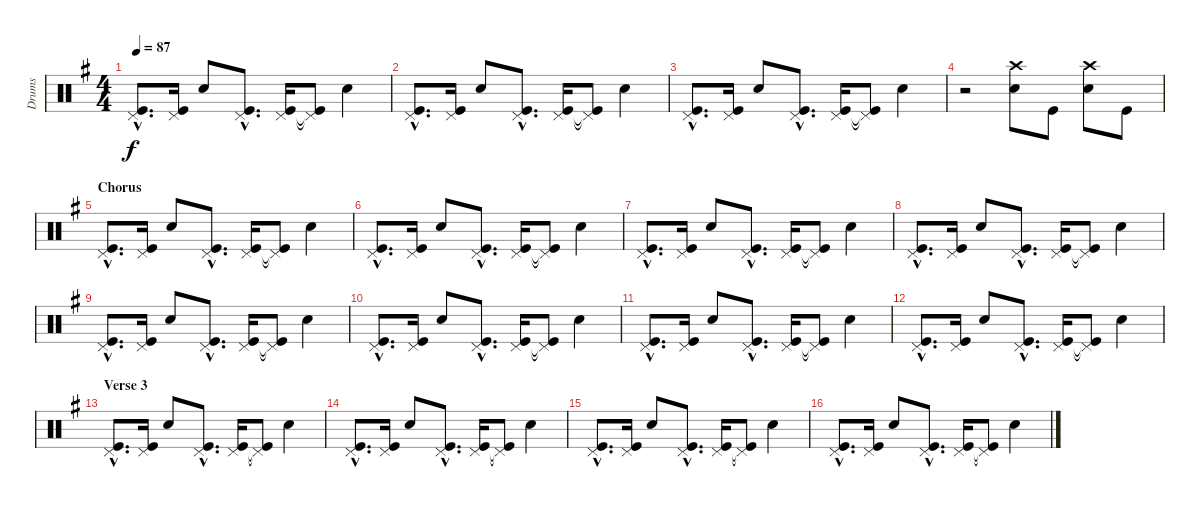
\track ("Drums" "Drums") {instrument percussion}
\staff {score}
\articulation defaults
\ts (4 4)
\tempo 87
\clef neutral
\ks g
("Kick (hit)"{hac} "Pedal Hi-Hat (hit)"{hac}).8{d dy f} ("Kick (hit)" "Pedal Hi-Hat (hit)").16 "Snare (hit) 2".8 ("Kick (hit)"{hac} "Pedal Hi-Hat (hit)"{hac}).8{d} ("Kick (hit)" "Pedal Hi-Hat (hit)").16 ("Kick (hit)"{t} "Pedal Hi-Hat (hit)"{t}).8 "Snare (hit) 2".4 |
("Kick (hit)"{hac} "Pedal Hi-Hat (hit)"{hac}).8{d} ("Kick (hit)" "Pedal Hi-Hat (hit)").16 "Snare (hit) 2".8 ("Kick (hit)"{hac} "Pedal Hi-Hat (hit)"{hac}).8{d} ("Kick (hit)" "Pedal Hi-Hat (hit)").16 ("Kick (hit)"{t} "Pedal Hi-Hat (hit)"{t}).8 "Snare (hit) 2".4 |
("Kick (hit)"{hac} "Pedal Hi-Hat (hit)"{hac}).8{d} ("Kick (hit)" "Pedal Hi-Hat (hit)").16 "Snare (hit) 2".8 ("Kick (hit)"{hac} "Pedal Hi-Hat (hit)"{hac}).8{d} ("Kick (hit)" "Pedal Hi-Hat (hit)").16 ("Kick (hit)"{t} "Pedal Hi-Hat (hit)"{t}).8 "Snare (hit) 2".4 |
r.2 ("Crash high (hit)" "Snare (hit) 2").8 "Kick (hit)".8 ("Crash high (hit)" "Snare (hit) 2").8 "Kick (hit)".8 |
\section ("" "Chorus")
("Kick (hit)"{hac} "Pedal Hi-Hat (hit)"{hac}).8{d} ("Kick (hit)" "Pedal Hi-Hat (hit)").16 "Snare (hit) 2".8 ("Kick (hit)"{hac} "Pedal Hi-Hat (hit)"{hac}).8{d} ("Kick (hit)" "Pedal Hi-Hat (hit)").16 ("Kick (hit)"{t} "Pedal Hi-Hat (hit)"{t}).8 "Snare (hit) 2".4 |
("Kick (hit)"{hac} "Pedal Hi-Hat (hit)"{hac}).8{d} ("Kick (hit)" "Pedal Hi-Hat (hit)").16 "Snare (hit) 2".8 ("Kick (hit)"{hac} "Pedal Hi-Hat (hit)"{hac}).8{d} ("Kick (hit)" "Pedal Hi-Hat (hit)").16 ("Kick (hit)"{t} "Pedal Hi-Hat (hit)"{t}).8 "Snare (hit) 2".4 |
("Kick (hit)"{hac} "Pedal Hi-Hat (hit)"{hac}).8{d} ("Kick (hit)" "Pedal Hi-Hat (hit)").16 "Snare (hit) 2".8 ("Kick (hit)"{hac} "Pedal Hi-Hat (hit)"{hac}).8{d} ("Kick (hit)" "Pedal Hi-Hat (hit)").16 ("Kick (hit)"{t} "Pedal Hi-Hat (hit)"{t}).8 "Snare (hit) 2".4 |
("Kick (hit)"{hac} "Pedal Hi-Hat (hit)"{hac}).8{d} ("Kick (hit)" "Pedal Hi-Hat (hit)").16 "Snare (hit) 2".8 ("Kick (hit)"{hac} "Pedal Hi-Hat (hit)"{hac}).8{d} ("Kick (hit)" "Pedal Hi-Hat (hit)").16 ("Kick (hit)"{t} "Pedal Hi-Hat (hit)"{t}).8 "Snare (hit) 2".4 |
("Kick (hit)"{hac} "Pedal Hi-Hat (hit)"{hac}).8{d} ("Kick (hit)" "Pedal Hi-Hat (hit)").16 "Snare (hit) 2".8 ("Kick (hit)"{hac} "Pedal Hi-Hat (hit)"{hac}).8{d} ("Kick (hit)" "Pedal Hi-Hat (hit)").16 ("Kick (hit)"{t} "Pedal Hi-Hat (hit)"{t}).8 "Snare (hit) 2".4 |
("Kick (hit)"{hac} "Pedal Hi-Hat (hit)"{hac}).8{d} ("Kick (hit)" "Pedal Hi-Hat (hit)").16 "Snare (hit) 2".8 ("Kick (hit)"{hac} "Pedal Hi-Hat (hit)"{hac}).8{d} ("Kick (hit)" "Pedal Hi-Hat (hit)").16 ("Kick (hit)"{t} "Pedal Hi-Hat (hit)"{t}).8 "Snare (hit) 2".4 |
("Kick (hit)"{hac} "Pedal Hi-Hat (hit)"{hac}).8{d} ("Kick (hit)" "Pedal Hi-Hat (hit)").16 "Snare (hit) 2".8 ("Kick (hit)"{hac} "Pedal Hi-Hat (hit)"{hac}).8{d} ("Kick (hit)" "Pedal Hi-Hat (hit)").16 ("Kick (hit)"{t} "Pedal Hi-Hat (hit)"{t}).8 "Snare (hit) 2".4 |
("Kick (hit)"{hac} "Pedal Hi-Hat (hit)"{hac}).8{d} ("Kick (hit)" "Pedal Hi-Hat (hit)").16 "Snare (hit) 2".8 ("Kick (hit)"{hac} "Pedal Hi-Hat (hit)"{hac}).8{d} ("Kick (hit)" "Pedal Hi-Hat (hit)").16 ("Kick (hit)"{t} "Pedal Hi-Hat (hit)"{t}).8 "Snare (hit) 2".4 |
\section ("" "Verse 3")
("Kick (hit)"{hac} "Pedal Hi-Hat (hit)"{hac}).8{d} ("Kick (hit)" "Pedal Hi-Hat (hit)").16 "Snare (hit) 2".8 ("Kick (hit)"{hac} "Pedal Hi-Hat (hit)"{hac}).8{d} ("Kick (hit)" "Pedal Hi-Hat (hit)").16 ("Kick (hit)"{t} "Pedal Hi-Hat (hit)"{t}).8 "Snare (hit) 2".4 |
("Kick (hit)"{hac} "Pedal Hi-Hat (hit)"{hac}).8{d} ("Kick (hit)" "Pedal Hi-Hat (hit)").16 "Snare (hit) 2".8 ("Kick (hit)"{hac} "Pedal Hi-Hat (hit)"{hac}).8{d} ("Kick (hit)" "Pedal Hi-Hat (hit)").16 ("Kick (hit)"{t} "Pedal Hi-Hat (hit)"{t}).8 "Snare (hit) 2".4 |
("Kick (hit)"{hac} "Pedal Hi-Hat (hit)"{hac}).8{d} ("Kick (hit)" "Pedal Hi-Hat (hit)").16 "Snare (hit) 2".8 ("Kick (hit)"{hac} "Pedal Hi-Hat (hit)"{hac}).8{d} ("Kick (hit)" "Pedal Hi-Hat (hit)").16 ("Kick (hit)"{t} "Pedal Hi-Hat (hit)"{t}).8 "Snare (hit) 2".4 |
("Kick (hit)"{hac} "Pedal Hi-Hat (hit)"{hac}).8{d} ("Kick (hit)" "Pedal Hi-Hat (hit)").16 "Snare (hit) 2".8 ("Kick (hit)"{hac} "Pedal Hi-Hat (hit)"{hac}).8{d} ("Kick (hit)" "Pedal Hi-Hat (hit)").16 ("Kick (hit)"{t} "Pedal Hi-Hat (hit)"{t}).8 "Snare (hit) 2".4
